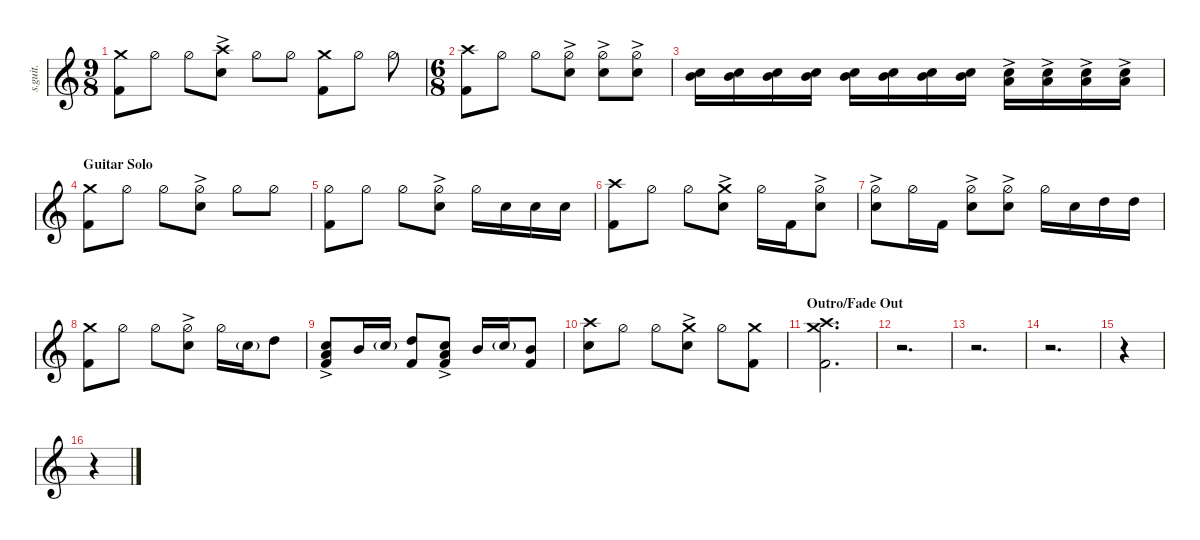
\defaultSystemsLayout 4
\hideDynamics
\bracketExtendMode nobrackets
\track ("Lars Ulrich - Drums" "s.guit.") {instrument percussion}
\staff {score}
\articulation defaults
\ts (9 8)
\beaming (8 2 2 2 2)
\tempo (71 hide)
\clef g2
\ks c
("Crash medium (hit)" "Kick (hit) 2").8{lyrics (0 "") lyrics (1 "") lyrics (2 "") lyrics (3 "") lyrics (4 "") dy ff} "Hi-Hat (half)".8{lyrics (0 "") lyrics (1 "") lyrics (2 "") lyrics (3 "") lyrics (4 "")} "Hi-Hat (half)".8{lyrics (0 "") lyrics (1 "") lyrics (2 "") lyrics (3 "") lyrics (4 "")} ("Crash high (hit)"{ac} "Snare (hit) 2"{ac}).8{lyrics (0 "") lyrics (1 "") lyrics (2 "") lyrics (3 "") lyrics (4 "")} "Hi-Hat (half)".8{lyrics (0 "") lyrics (1 "") lyrics (2 "") lyrics (3 "") lyrics (4 "")} "Hi-Hat (half)".8{lyrics (0 "") lyrics (1 "") lyrics (2 "") lyrics (3 "") lyrics (4 "")} ("Crash medium (hit)" "Kick (hit) 2").8{lyrics (0 "") lyrics (1 "") lyrics (2 "") lyrics (3 "") lyrics (4 "")} "Hi-Hat (half)".8{lyrics (0 "") lyrics (1 "") lyrics (2 "") lyrics (3 "") lyrics (4 "")} "Hi-Hat (half)".8{lyrics (0 "") lyrics (1 "") lyrics (2 "") lyrics (3 "") lyrics (4 "")} |
\ts (6 8)
\beaming (8 2 2 2 2)
("Crash high (hit)" "Kick (hit) 2").8{lyrics (0 "") lyrics (1 "") lyrics (2 "") lyrics (3 "") lyrics (4 "")} "Hi-Hat (half)".8{lyrics (0 "") lyrics (1 "") lyrics (2 "") lyrics (3 "") lyrics (4 "")} "Hi-Hat (half)".8{lyrics (0 "") lyrics (1 "") lyrics (2 "") lyrics (3 "") lyrics (4 "")} ("Snare (hit) 2"{ac} "Hi-Hat (half)"{ac}).8{lyrics (0 "") lyrics (1 "") lyrics (2 "") lyrics (3 "") lyrics (4 "")} ("Snare (hit) 2"{ac} "Hi-Hat (half)"{ac}).8{lyrics (0 "") lyrics (1 "") lyrics (2 "") lyrics (3 "") lyrics (4 "")} ("Snare (hit) 2"{ac} "Hi-Hat (half)"{ac}).8{lyrics (0 "") lyrics (1 "") lyrics (2 "") lyrics (3 "") lyrics (4 "")} |
("Snare (hit) 2" "Mid Tom (hit)").16{lyrics (0 "") lyrics (1 "") lyrics (2 "") lyrics (3 "") lyrics (4 "")} ("Snare (hit) 2" "Mid Tom (hit)").16{lyrics (0 "") lyrics (1 "") lyrics (2 "") lyrics (3 "") lyrics (4 "")} ("Snare (hit) 2" "Mid Tom (hit)").16{lyrics (0 "") lyrics (1 "") lyrics (2 "") lyrics (3 "") lyrics (4 "")} ("Snare (hit) 2" "Mid Tom (hit)").16{lyrics (0 "") lyrics (1 "") lyrics (2 "") lyrics (3 "") lyrics (4 "")} ("Snare (hit) 2" "Mid Tom (hit)").16{lyrics (0 "") lyrics (1 "") lyrics (2 "") lyrics (3 "") lyrics (4 "")} ("Snare (hit) 2" "Mid Tom (hit)").16{lyrics (0 "") lyrics (1 "") lyrics (2 "") lyrics (3 "") lyrics (4 "")} ("Snare (hit) 2" "Mid Tom (hit)").16{lyrics (0 "") lyrics (1 "") lyrics (2 "") lyrics (3 "") lyrics (4 "")} ("Snare (hit) 2" "Mid Tom (hit)").16{lyrics (0 "") lyrics (1 "") lyrics (2 "") lyrics (3 "") lyrics (4 "")} ("Snare (hit) 2"{ac} "Low Floor Tom (hit)"{ac}).16{lyrics (0 "") lyrics (1 "") lyrics (2 "") lyrics (3 "") lyrics (4 "")} ("Snare (hit) 2"{ac} "Low Floor Tom (hit)"{ac}).16{lyrics (0 "") lyrics (1 "") lyrics (2 "") lyrics (3 "") lyrics (4 "")} ("Snare (hit) 2"{ac} "Low Floor Tom (hit)"{ac}).16{lyrics (0 "") lyrics (1 "") lyrics (2 "") lyrics (3 "") lyrics (4 "")} ("Snare (hit) 2"{ac} "Low Floor Tom (hit)"{ac}).16{lyrics (0 "") lyrics (1 "") lyrics (2 "") lyrics (3 "") lyrics (4 "")} |
\section ("" "Guitar Solo")
("Crash medium (hit)" "Kick (hit) 2").8{lyrics (0 "") lyrics (1 "") lyrics (2 "") lyrics (3 "") lyrics (4 "")} "Hi-Hat (half)".8{lyrics (0 "") lyrics (1 "") lyrics (2 "") lyrics (3 "") lyrics (4 "")} "Hi-Hat (half)".8{lyrics (0 "") lyrics (1 "") lyrics (2 "") lyrics (3 "") lyrics (4 "")} ("Hi-Hat (half)"{ac} "Snare (hit) 2"{ac}).8{lyrics (0 "") lyrics (1 "") lyrics (2 "") lyrics (3 "") lyrics (4 "")} "Hi-Hat (half)".8{lyrics (0 "") lyrics (1 "") lyrics (2 "") lyrics (3 "") lyrics (4 "")} "Hi-Hat (half)".8{lyrics (0 "") lyrics (1 "") lyrics (2 "") lyrics (3 "") lyrics (4 "")} |
("Hi-Hat (half)" "Kick (hit) 2").8{lyrics (0 "") lyrics (1 "") lyrics (2 "") lyrics (3 "") lyrics (4 "")} "Hi-Hat (half)".8{lyrics (0 "") lyrics (1 "") lyrics (2 "") lyrics (3 "") lyrics (4 "")} "Hi-Hat (half)".8{lyrics (0 "") lyrics (1 "") lyrics (2 "") lyrics (3 "") lyrics (4 "")} ("Hi-Hat (half)"{ac} "Snare (hit) 2"{ac}).8{lyrics (0 "") lyrics (1 "") lyrics (2 "") lyrics (3 "") lyrics (4 "")} "Hi-Hat (half)".16{lyrics (0 "") lyrics (1 "") lyrics (2 "") lyrics (3 "") lyrics (4 "")} "Snare (hit) 2".16{lyrics (0 "") lyrics (1 "") lyrics (2 "") lyrics (3 "") lyrics (4 "")} "Snare (hit) 2".16{lyrics (0 "") lyrics (1 "") lyrics (2 "") lyrics (3 "") lyrics (4 "")} "Snare (hit) 2".16{lyrics (0 "") lyrics (1 "") lyrics (2 "") lyrics (3 "") lyrics (4 "")} |
("Crash high (hit)" "Kick (hit) 2").8{lyrics (0 "") lyrics (1 "") lyrics (2 "") lyrics (3 "") lyrics (4 "")} "Hi-Hat (half)".8{lyrics (0 "") lyrics (1 "") lyrics (2 "") lyrics (3 "") lyrics (4 "")} "Hi-Hat (half)".8{lyrics (0 "") lyrics (1 "") lyrics (2 "") lyrics (3 "") lyrics (4 "")} ("Crash medium (hit)"{ac} "Snare (hit) 2"{ac}).8{lyrics (0 "") lyrics (1 "") lyrics (2 "") lyrics (3 "") lyrics (4 "")} "Hi-Hat (half)".16{lyrics (0 "") lyrics (1 "") lyrics (2 "") lyrics (3 "") lyrics (4 "")} "Kick (hit) 2".16{lyrics (0 "") lyrics (1 "") lyrics (2 "") lyrics (3 "") lyrics (4 "")} ("Hi-Hat (half)"{ac} "Snare (hit) 2"{ac}).8{lyrics (0 "") lyrics (1 "") lyrics (2 "") lyrics (3 "") lyrics (4 "")} |
("Hi-Hat (half)"{ac} "Snare (hit) 2"{ac}).8{lyrics (0 "") lyrics (1 "") lyrics (2 "") lyrics (3 "") lyrics (4 "")} "Hi-Hat (half)".16{lyrics (0 "") lyrics (1 "") lyrics (2 "") lyrics (3 "") lyrics (4 "")} "Kick (hit) 2".16{lyrics (0 "") lyrics (1 "") lyrics (2 "") lyrics (3 "") lyrics (4 "")} ("Hi-Hat (half)"{ac} "Snare (hit) 2"{ac}).8{lyrics (0 "") lyrics (1 "") lyrics (2 "") lyrics (3 "") lyrics (4 "")} ("Hi-Hat (half)"{ac} "Snare (hit) 2"{ac}).8{lyrics (0 "") lyrics (1 "") lyrics (2 "") lyrics (3 "") lyrics (4 "")} "Hi-Hat (half)".16{lyrics (0 "") lyrics (1 "") lyrics (2 "") lyrics (3 "") lyrics (4 "")} "Snare (hit) 2".16{lyrics (0 "") lyrics (1 "") lyrics (2 "") lyrics (3 "") lyrics (4 "")} "High Tom (hit)".16{lyrics (0 "") lyrics (1 "") lyrics (2 "") lyrics (3 "") lyrics (4 "")} "High Tom (hit)".16{lyrics (0 "") lyrics (1 "") lyrics (2 "") lyrics (3 "") lyrics (4 "")} |
("Crash medium (hit)" "Kick (hit) 2").8{lyrics (0 "") lyrics (1 "") lyrics (2 "") lyrics (3 "") lyrics (4 "")} "Hi-Hat (half)".8{lyrics (0 "") lyrics (1 "") lyrics (2 "") lyrics (3 "") lyrics (4 "")} "Hi-Hat (half)".8{lyrics (0 "") lyrics (1 "") lyrics (2 "") lyrics (3 "") lyrics (4 "")} ("Hi-Hat (half)"{ac} "Snare (hit) 2"{ac}).8{lyrics (0 "") lyrics (1 "") lyrics (2 "") lyrics (3 "") lyrics (4 "")} "Hi-Hat (half)".16{lyrics (0 "") lyrics (1 "") lyrics (2 "") lyrics (3 "") lyrics (4 "")} "Snare (hit) 2"{g}.16{lyrics (0 "") lyrics (1 "") lyrics (2 "") lyrics (3 "") lyrics (4 "")} "High Tom (hit)".8{lyrics (0 "") lyrics (1 "") lyrics (2 "") lyrics (3 "") lyrics (4 "")} |
("Snare (hit) 2"{ac} "Kick (hit) 2"{ac} "Low Floor Tom (hit)"{ac}).8{lyrics (0 "") lyrics (1 "") lyrics (2 "") lyrics (3 "") lyrics (4 "")} "Mid Tom (hit)".16{lyrics (0 "") lyrics (1 "") lyrics (2 "") lyrics (3 "") lyrics (4 "")} "Snare (hit) 2"{g}.16{lyrics (0 "") lyrics (1 "") lyrics (2 "") lyrics (3 "") lyrics (4 "")} ("Kick (hit) 2" "High Tom (hit)").8{lyrics (0 "") lyrics (1 "") lyrics (2 "") lyrics (3 "") lyrics (4 "")} ("Snare (hit) 2"{ac} "Kick (hit) 2"{ac} "Low Floor Tom (hit)"{ac}).8{lyrics (0 "") lyrics (1 "") lyrics (2 "") lyrics (3 "") lyrics (4 "")} "Mid Tom (hit)".16{lyrics (0 "") lyrics (1 "") lyrics (2 "") lyrics (3 "") lyrics (4 "")} "Snare (hit) 2"{g}.16{lyrics (0 "") lyrics (1 "") lyrics (2 "") lyrics (3 "") lyrics (4 "")} ("Kick (hit) 2" "Mid Tom (hit)").8{lyrics (0 "") lyrics (1 "") lyrics (2 "") lyrics (3 "") lyrics (4 "")} |
("Crash high (hit)" "Snare (hit) 2").8{lyrics (0 "") lyrics (1 "") lyrics (2 "") lyrics (3 "") lyrics (4 "")} "Hi-Hat (half)".8{lyrics (0 "") lyrics (1 "") lyrics (2 "") lyrics (3 "") lyrics (4 "")} "Hi-Hat (half)".8{lyrics (0 "") lyrics (1 "") lyrics (2 "") lyrics (3 "") lyrics (4 "")} ("Crash medium (hit)"{ac} "Snare (hit) 2"{ac}).8{lyrics (0 "") lyrics (1 "") lyrics (2 "") lyrics (3 "") lyrics (4 "")} "Hi-Hat (half)".8{lyrics (0 "") lyrics (1 "") lyrics (2 "") lyrics (3 "") lyrics (4 "")} ("Crash medium (hit)" "Kick (hit) 2").8{lyrics (0 "") lyrics (1 "") lyrics (2 "") lyrics (3 "") lyrics (4 "")} |
\section ("" "Outro/Fade Out")
("Crash medium (hit)" "Crash high (hit)" "Kick (hit) 2").2{d lyrics (0 "") lyrics (1 "") lyrics (2 "") lyrics (3 "") lyrics (4 "")} |
r.2{d} |
r.2{d} |
r.2{d} |
r.4 |
r.4
